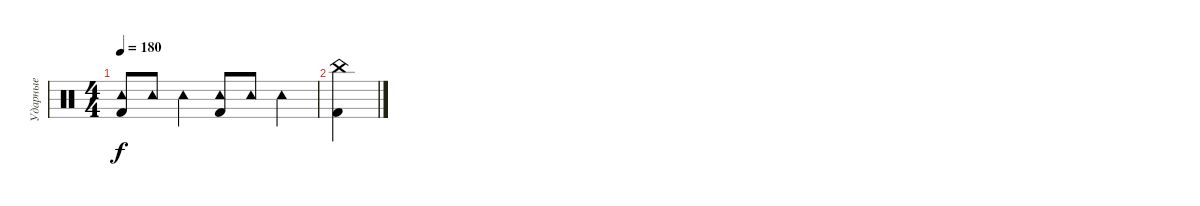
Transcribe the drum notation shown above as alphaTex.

\track ("Ударные" "Ударные") {instrument percussion}
\staff {score}
\articulation defaults
\ts (4 4)
\tempo 180
\clef neutral
\ks c
("Tambourine (hit)" "Kick (hit) 2").8{dy f volume 8} "Tambourine (hit)".8 "Tambourine (hit)".4 ("Tambourine (hit)" "Kick (hit) 2").8 "Tambourine (hit)".8 "Tambourine (hit)".4 |
("China (hit)" "Kick (hit) 2").4
